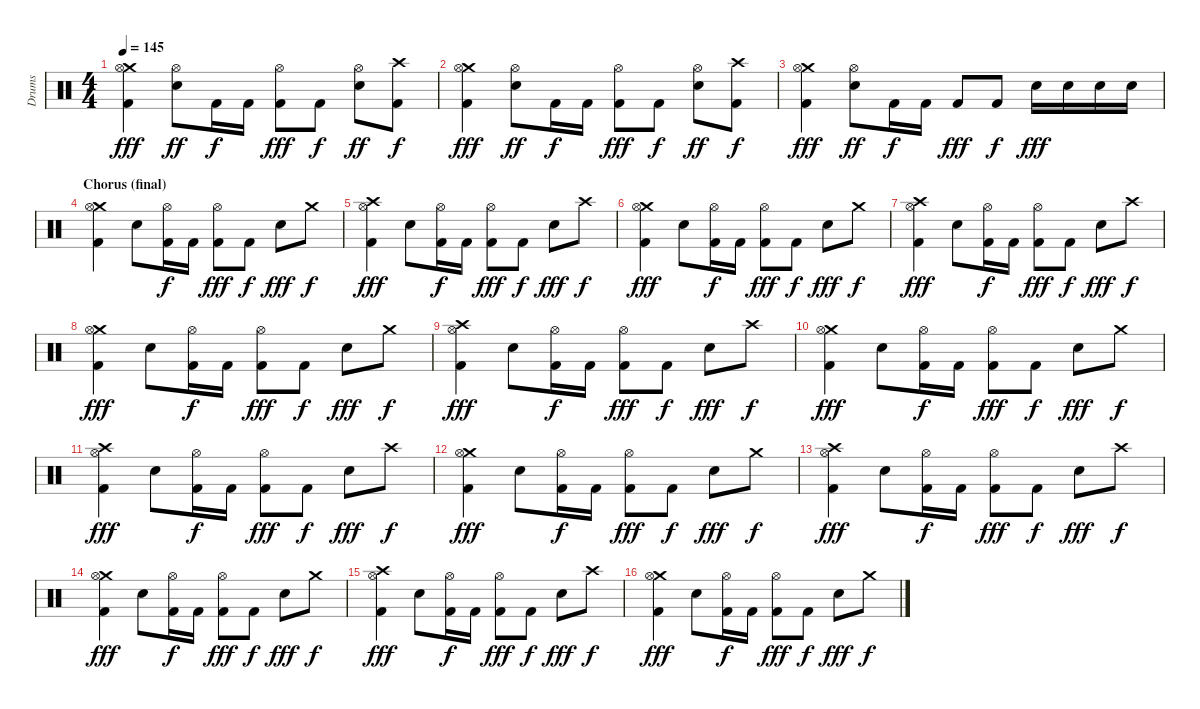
\track ("Drums" "Drums") {instrument percussion}
\staff {score}
\articulation defaults
\ts (4 4)
\tempo 145
\clef neutral
\ks c
("Crash medium (hit)" "Hi-Hat (open)" "Kick (hit) 2").4{dy fff} ("Hi-Hat (open)" "Snare (hit) 2").8{dy ff} "Kick (hit) 2".16{dy f} "Kick (hit) 2".16 ("Hi-Hat (open)" "Kick (hit) 2").8{dy fff} "Kick (hit) 2".8{dy f} ("Hi-Hat (open)" "Snare (hit) 2").8{dy ff} ("Crash high (hit)" "Kick (hit) 2").8{dy f} |
("Crash medium (hit)" "Hi-Hat (open)" "Kick (hit) 2").4{dy fff} ("Hi-Hat (open)" "Snare (hit) 2").8{dy ff} "Kick (hit) 2".16{dy f} "Kick (hit) 2".16 ("Hi-Hat (open)" "Kick (hit) 2").8{dy fff} "Kick (hit) 2".8{dy f} ("Hi-Hat (open)" "Snare (hit) 2").8{dy ff} ("Crash high (hit)" "Kick (hit) 2").8{dy f} |
("Crash medium (hit)" "Hi-Hat (open)" "Kick (hit) 2").4{dy fff} ("Hi-Hat (open)" "Snare (hit) 2").8{dy ff} "Kick (hit) 2".16{dy f} "Kick (hit) 2".16 "Kick (hit) 2".8{dy fff} "Kick (hit) 2".8{dy f} "Snare (hit) 2".16{dy fff} "Snare (hit) 2".16 "Snare (hit) 2".16 "Snare (hit) 2".16 |
\section ("" "Chorus (final)")
("Crash medium (hit)" "Hi-Hat (open)" "Kick (hit) 2").4 "Snare (hit) 2".8 ("Hi-Hat (open)" "Kick (hit) 2").16{dy f} "Kick (hit) 2".16 ("Hi-Hat (open)" "Kick (hit) 2").8{dy fff} "Kick (hit) 2".8{dy f} "Snare (hit) 2".8{dy fff} "Crash medium (hit)".8{dy f} |
("Crash high (hit)" "Hi-Hat (open)" "Kick (hit) 2").4{dy fff} "Snare (hit) 2".8 ("Hi-Hat (open)" "Kick (hit) 2").16{dy f} "Kick (hit) 2".16 ("Hi-Hat (open)" "Kick (hit) 2").8{dy fff} "Kick (hit) 2".8{dy f} "Snare (hit) 2".8{dy fff} "Crash high (hit)".8{dy f} |
("Crash medium (hit)" "Hi-Hat (open)" "Kick (hit) 2").4{dy fff} "Snare (hit) 2".8 ("Hi-Hat (open)" "Kick (hit) 2").16{dy f} "Kick (hit) 2".16 ("Hi-Hat (open)" "Kick (hit) 2").8{dy fff} "Kick (hit) 2".8{dy f} "Snare (hit) 2".8{dy fff} "Crash medium (hit)".8{dy f} |
("Crash high (hit)" "Hi-Hat (open)" "Kick (hit) 2").4{dy fff} "Snare (hit) 2".8 ("Hi-Hat (open)" "Kick (hit) 2").16{dy f} "Kick (hit) 2".16 ("Hi-Hat (open)" "Kick (hit) 2").8{dy fff} "Kick (hit) 2".8{dy f} "Snare (hit) 2".8{dy fff} "Crash high (hit)".8{dy f} |
("Crash medium (hit)" "Hi-Hat (open)" "Kick (hit) 2").4{dy fff} "Snare (hit) 2".8 ("Hi-Hat (open)" "Kick (hit) 2").16{dy f} "Kick (hit) 2".16 ("Hi-Hat (open)" "Kick (hit) 2").8{dy fff} "Kick (hit) 2".8{dy f} "Snare (hit) 2".8{dy fff} "Crash medium (hit)".8{dy f} |
("Crash high (hit)" "Hi-Hat (open)" "Kick (hit) 2").4{dy fff} "Snare (hit) 2".8 ("Hi-Hat (open)" "Kick (hit) 2").16{dy f} "Kick (hit) 2".16 ("Hi-Hat (open)" "Kick (hit) 2").8{dy fff} "Kick (hit) 2".8{dy f} "Snare (hit) 2".8{dy fff} "Crash high (hit)".8{dy f} |
("Crash medium (hit)" "Hi-Hat (open)" "Kick (hit) 2").4{dy fff} "Snare (hit) 2".8 ("Hi-Hat (open)" "Kick (hit) 2").16{dy f} "Kick (hit) 2".16 ("Hi-Hat (open)" "Kick (hit) 2").8{dy fff} "Kick (hit) 2".8{dy f} "Snare (hit) 2".8{dy fff} "Crash medium (hit)".8{dy f} |
("Crash high (hit)" "Hi-Hat (open)" "Kick (hit) 2").4{dy fff} "Snare (hit) 2".8 ("Hi-Hat (open)" "Kick (hit) 2").16{dy f} "Kick (hit) 2".16 ("Hi-Hat (open)" "Kick (hit) 2").8{dy fff} "Kick (hit) 2".8{dy f} "Snare (hit) 2".8{dy fff} "Crash high (hit)".8{dy f} |
("Crash medium (hit)" "Hi-Hat (open)" "Kick (hit) 2").4{dy fff} "Snare (hit) 2".8 ("Hi-Hat (open)" "Kick (hit) 2").16{dy f} "Kick (hit) 2".16 ("Hi-Hat (open)" "Kick (hit) 2").8{dy fff} "Kick (hit) 2".8{dy f} "Snare (hit) 2".8{dy fff} "Crash medium (hit)".8{dy f} |
("Crash high (hit)" "Hi-Hat (open)" "Kick (hit) 2").4{dy fff} "Snare (hit) 2".8 ("Hi-Hat (open)" "Kick (hit) 2").16{dy f} "Kick (hit) 2".16 ("Hi-Hat (open)" "Kick (hit) 2").8{dy fff} "Kick (hit) 2".8{dy f} "Snare (hit) 2".8{dy fff} "Crash high (hit)".8{dy f} |
("Crash medium (hit)" "Hi-Hat (open)" "Kick (hit) 2").4{dy fff} "Snare (hit) 2".8 ("Hi-Hat (open)" "Kick (hit) 2").16{dy f} "Kick (hit) 2".16 ("Hi-Hat (open)" "Kick (hit) 2").8{dy fff} "Kick (hit) 2".8{dy f} "Snare (hit) 2".8{dy fff} "Crash medium (hit)".8{dy f} |
("Crash high (hit)" "Hi-Hat (open)" "Kick (hit) 2").4{dy fff} "Snare (hit) 2".8 ("Hi-Hat (open)" "Kick (hit) 2").16{dy f} "Kick (hit) 2".16 ("Hi-Hat (open)" "Kick (hit) 2").8{dy fff} "Kick (hit) 2".8{dy f} "Snare (hit) 2".8{dy fff} "Crash high (hit)".8{dy f} |
("Crash medium (hit)" "Hi-Hat (open)" "Kick (hit) 2").4{dy fff} "Snare (hit) 2".8 ("Hi-Hat (open)" "Kick (hit) 2").16{dy f} "Kick (hit) 2".16 ("Hi-Hat (open)" "Kick (hit) 2").8{dy fff} "Kick (hit) 2".8{dy f} "Snare (hit) 2".8{dy fff} "Crash medium (hit)".8{dy f}
